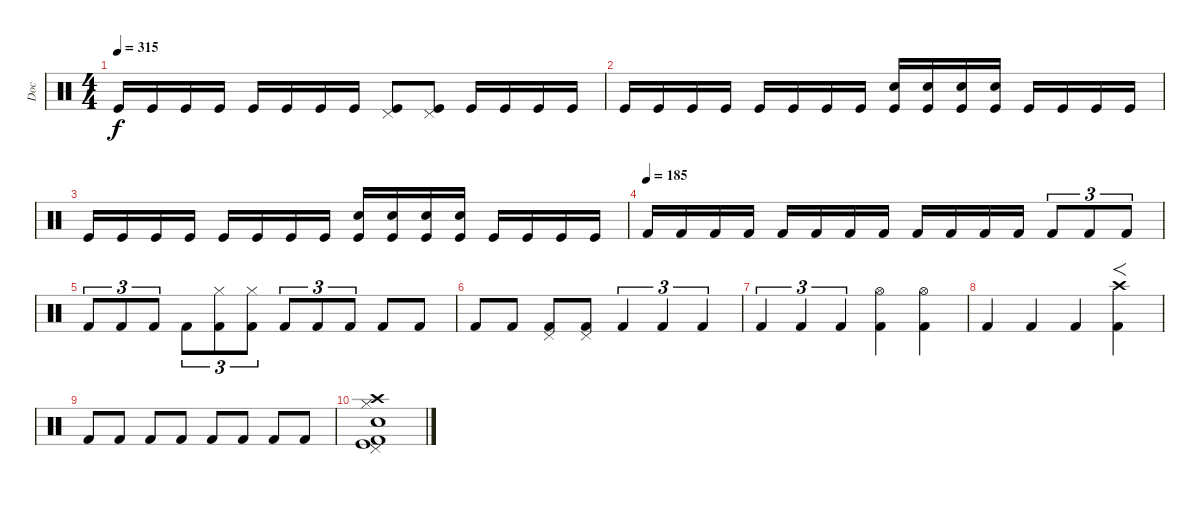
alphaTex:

\track ("Doc" "Doc") {instrument percussion}
\staff {score}
\articulation defaults
\ts (4 4)
\tempo 315
\clef neutral
\ks c "Kick (hit)".16{dy f} "Kick (hit)".16 "Kick (hit)".16 "Kick (hit)".16 "Kick (hit)".16 "Kick (hit)".16 "Kick (hit)".16 "Kick (hit)".16
("Pedal Hi-Hat (hit)" "Kick (hit)").8 ("Pedal Hi-Hat (hit)" "Kick (hit)").8 "Kick (hit)".16 "Kick (hit)".16 "Kick (hit)".16 "Kick (hit)".16 |
"Kick (hit)".16 "Kick (hit)".16 "Kick (hit)".16 "Kick (hit)".16 "Kick (hit)".16 "Kick (hit)".16 "Kick (hit)".16 "Kick (hit)".16 ("Snare (hit) 2" "Kick (hit)").16 ("Snare (hit) 2" "Kick (hit)").16 ("Snare (hit) 2" "Kick (hit)").16 ("Snare (hit) 2" "Kick (hit)").16 "Kick (hit)".16 "Kick (hit)".16 "Kick (hit)".16 "Kick (hit)".16 |
"Kick (hit)".16 "Kick (hit)".16 "Kick (hit)".16 "Kick (hit)".16 "Kick (hit)".16 "Kick (hit)".16 "Kick (hit)".16 "Kick (hit)".16 ("Snare (hit) 2" "Kick (hit)").16 ("Snare (hit) 2" "Kick (hit)").16 ("Snare (hit) 2" "Kick (hit)").16 ("Snare (hit) 2" "Kick (hit)").16 "Kick (hit)".16 "Kick (hit)".16 "Kick (hit)".16 "Kick (hit)".16 |
\tempo (185)
"Kick (hit) 2".16 "Kick (hit) 2".16 "Kick (hit) 2".16 "Kick (hit) 2".16 "Kick (hit) 2".16 "Kick (hit) 2".16 "Kick (hit) 2".16 "Kick (hit) 2".16 "Kick (hit) 2".16 "Kick (hit) 2".16 "Kick (hit) 2".16 "Kick (hit) 2".16 "Kick (hit) 2".8{tu (3 2)} "Kick (hit) 2".8{tu (3 2)} "Kick (hit) 2".8{tu (3 2)} |
"Kick (hit) 2".8{tu (3 2)} "Kick (hit) 2".8{tu (3 2)} "Kick (hit) 2".8{tu (3 2)} "Kick (hit) 2".8{tu (3 2)} ("Hi-Hat (closed)" "Kick (hit) 2").8{tu (3 2)} ("Hi-Hat (closed)" "Kick (hit) 2").8{tu (3 2)} "Kick (hit) 2".8{tu (3 2)} "Kick (hit) 2".8{tu (3 2)} "Kick (hit) 2".8{tu (3 2)} "Kick (hit) 2".8 "Kick (hit) 2".8 |
"Kick (hit) 2".8 "Kick (hit) 2".8 ("Pedal Hi-Hat (hit)" "Kick (hit) 2").8 ("Pedal Hi-Hat (hit)" "Kick (hit) 2").8 "Kick (hit) 2".4{tu (3 2)} "Kick (hit) 2".4{tu (3 2)} "Kick (hit) 2".4{tu (3 2)} |
"Kick (hit) 2".4{tu (3 2)} "Kick (hit) 2".4{tu (3 2)} "Kick (hit) 2".4{tu (3 2)} ("Hi-Hat (open)" "Kick (hit) 2").4 ("Hi-Hat (open)" "Kick (hit) 2").4 |
"Kick (hit) 2".4 "Kick (hit) 2".4 "Kick (hit) 2".4 ("Crash high (hit)" "Kick (hit) 2").4{f} |
"Kick (hit) 2".8 "Kick (hit) 2".8 "Kick (hit) 2".8 "Kick (hit) 2".8 "Kick (hit) 2".8 "Kick (hit) 2".8 "Kick (hit) 2".8 "Kick (hit) 2".8 |
("Hi-Hat (closed)" "Pedal Hi-Hat (hit)" "Crash high (hit)" "Kick (hit)" "Kick (hit) 2" "Snare (hit) 2").1
